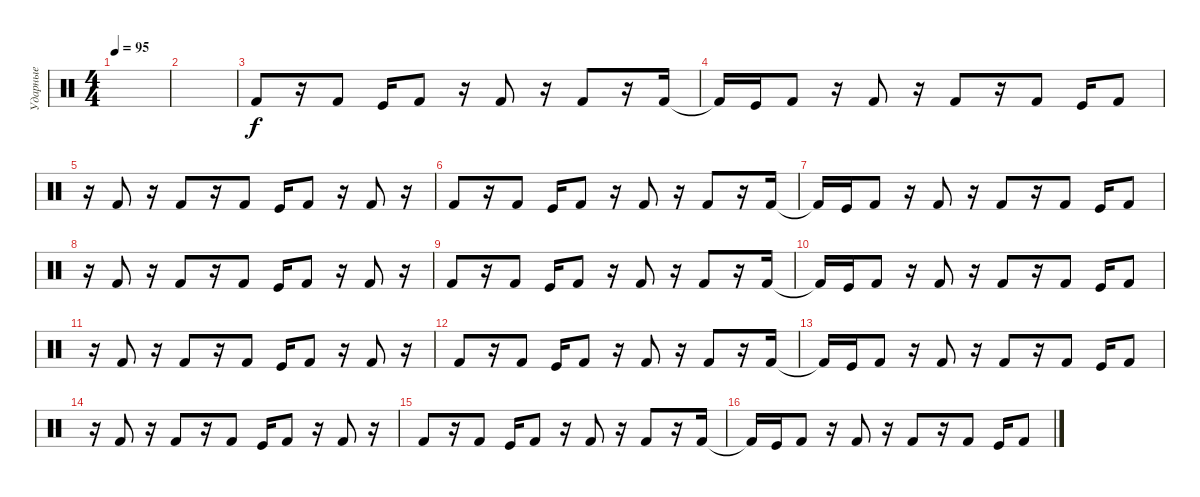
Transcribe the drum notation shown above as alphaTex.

\track ("Ударные" "Ударные") {instrument percussion}
\staff {score}
\articulation defaults
\ts (4 4)
\tempo 95
\clef neutral
\ks c
|
|
"Kick (hit) 2".8 r.16 "Kick (hit) 2".8 "Kick (hit)".16 "Kick (hit) 2".8 r.16 "Kick (hit) 2".8 r.16 "Kick (hit) 2".8 r.16 "Kick (hit) 2".16 |
"Kick (hit) 2"{t}.16 "Kick (hit)".16 "Kick (hit) 2".8 r.16 "Kick (hit) 2".8 r.16 "Kick (hit) 2".8 r.16 "Kick (hit) 2".8 "Kick (hit)".16 "Kick (hit) 2".8 |
r.16 "Kick (hit) 2".8 r.16 "Kick (hit) 2".8 r.16 "Kick (hit) 2".8 "Kick (hit)".16 "Kick (hit) 2".8 r.16 "Kick (hit) 2".8 r.16 |
"Kick (hit) 2".8 r.16 "Kick (hit) 2".8 "Kick (hit)".16 "Kick (hit) 2".8 r.16 "Kick (hit) 2".8 r.16 "Kick (hit) 2".8 r.16 "Kick (hit) 2".16 |
"Kick (hit) 2"{t}.16 "Kick (hit)".16 "Kick (hit) 2".8 r.16 "Kick (hit) 2".8 r.16 "Kick (hit) 2".8 r.16 "Kick (hit) 2".8 "Kick (hit)".16 "Kick (hit) 2".8 |
r.16 "Kick (hit) 2".8 r.16 "Kick (hit) 2".8 r.16 "Kick (hit) 2".8 "Kick (hit)".16 "Kick (hit) 2".8 r.16 "Kick (hit) 2".8 r.16 |
"Kick (hit) 2".8 r.16 "Kick (hit) 2".8 "Kick (hit)".16 "Kick (hit) 2".8 r.16 "Kick (hit) 2".8 r.16 "Kick (hit) 2".8 r.16 "Kick (hit) 2".16 |
"Kick (hit) 2"{t}.16 "Kick (hit)".16 "Kick (hit) 2".8 r.16 "Kick (hit) 2".8 r.16 "Kick (hit) 2".8 r.16 "Kick (hit) 2".8 "Kick (hit)".16 "Kick (hit) 2".8 |
r.16 "Kick (hit) 2".8 r.16 "Kick (hit) 2".8 r.16 "Kick (hit) 2".8 "Kick (hit)".16 "Kick (hit) 2".8 r.16 "Kick (hit) 2".8 r.16 |
"Kick (hit) 2".8 r.16 "Kick (hit) 2".8 "Kick (hit)".16 "Kick (hit) 2".8 r.16 "Kick (hit) 2".8 r.16 "Kick (hit) 2".8 r.16 "Kick (hit) 2".16 |
"Kick (hit) 2"{t}.16 "Kick (hit)".16 "Kick (hit) 2".8 r.16 "Kick (hit) 2".8 r.16 "Kick (hit) 2".8 r.16 "Kick (hit) 2".8 "Kick (hit)".16 "Kick (hit) 2".8 |
r.16 "Kick (hit) 2".8 r.16 "Kick (hit) 2".8 r.16 "Kick (hit) 2".8 "Kick (hit)".16 "Kick (hit) 2".8 r.16 "Kick (hit) 2".8 r.16 |
"Kick (hit) 2".8 r.16 "Kick (hit) 2".8 "Kick (hit)".16 "Kick (hit) 2".8 r.16 "Kick (hit) 2".8 r.16 "Kick (hit) 2".8 r.16 "Kick (hit) 2".16 |
"Kick (hit) 2"{t}.16 "Kick (hit)".16 "Kick (hit) 2".8 r.16 "Kick (hit) 2".8 r.16 "Kick (hit) 2".8 r.16 "Kick (hit) 2".8 "Kick (hit)".16 "Kick (hit) 2".8
